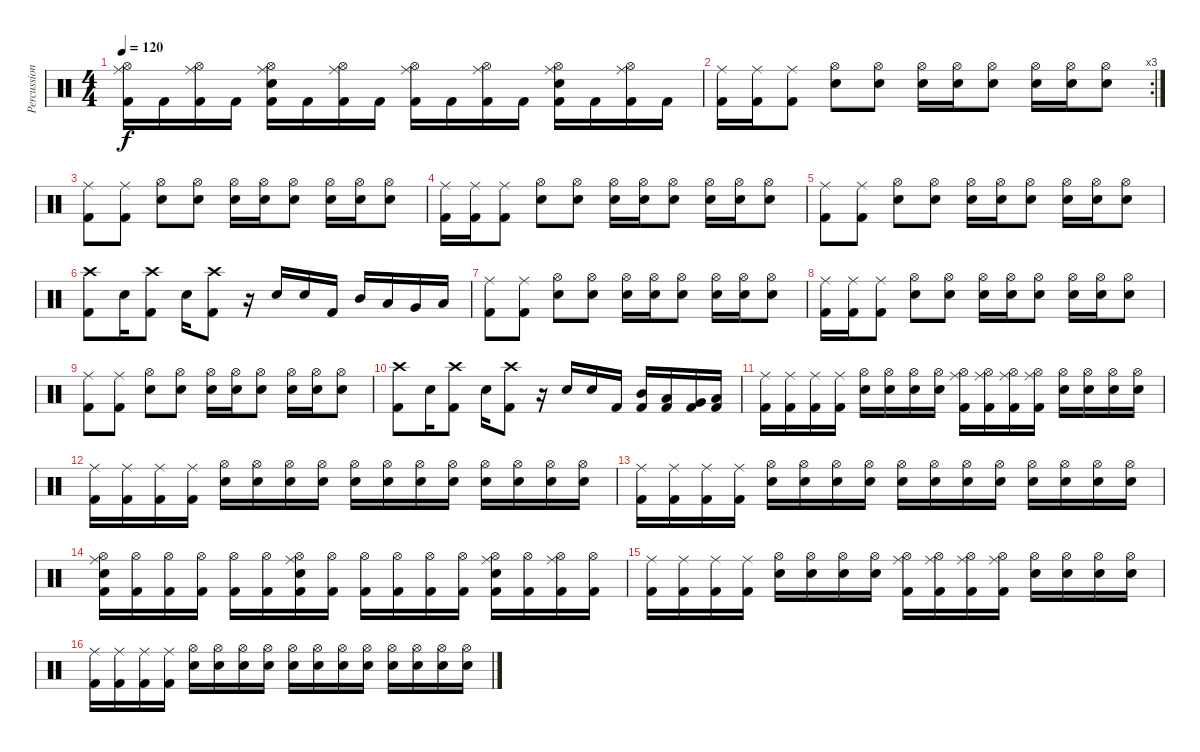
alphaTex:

\track ("Percussions" "Percussion") {instrument percussion}
\staff {score}
\articulation defaults
\ts (4 4)
\tempo 120
\clef neutral
\ks c
("Kick (hit) 2" "Ride (middle)" "Hi-Hat (open)").16{dy f} "Kick (hit) 2".16 ("Kick (hit) 2" "Ride (middle)" "Hi-Hat (open)").16 "Kick (hit) 2".16 ("Kick (hit) 2" "Snare (hit) 2" "Ride (middle)" "Hi-Hat (open)").16 "Kick (hit) 2".16 ("Kick (hit) 2" "Ride (middle)" "Hi-Hat (open)").16 "Kick (hit) 2".16 ("Kick (hit) 2" "Ride (middle)" "Hi-Hat (open)").16 "Kick (hit) 2".16 ("Kick (hit) 2" "Ride (middle)" "Hi-Hat (open)").16 "Kick (hit) 2".16 ("Kick (hit) 2" "Snare (hit) 2" "Ride (middle)" "Hi-Hat (open)").16 "Kick (hit) 2".16 ("Kick (hit) 2" "Ride (middle)" "Hi-Hat (open)").16 "Kick (hit) 2".16 |
\rc 3
("Kick (hit) 2" "Ride (middle)").16 ("Kick (hit) 2" "Ride (middle)").16 ("Kick (hit) 2" "Ride (middle)").8 ("Snare (hit) 2" "Hi-Hat (open)").8 ("Snare (hit) 2" "Hi-Hat (open)").8 ("Snare (hit) 2" "Hi-Hat (open)").16 ("Snare (hit) 2" "Hi-Hat (open)").16 ("Snare (hit) 2" "Hi-Hat (open)").8 ("Snare (hit) 2" "Hi-Hat (open)").16 ("Snare (hit) 2" "Hi-Hat (open)").16 ("Snare (hit) 2" "Hi-Hat (open)").8 |
("Kick (hit) 2" "Ride (middle)").8 ("Kick (hit) 2" "Ride (middle)").8 ("Snare (hit) 2" "Hi-Hat (open)").8 ("Snare (hit) 2" "Hi-Hat (open)").8 ("Snare (hit) 2" "Hi-Hat (open)").16 ("Snare (hit) 2" "Hi-Hat (open)").16 ("Snare (hit) 2" "Hi-Hat (open)").8 ("Snare (hit) 2" "Hi-Hat (open)").16 ("Snare (hit) 2" "Hi-Hat (open)").16 ("Snare (hit) 2" "Hi-Hat (open)").8 |
("Kick (hit) 2" "Ride (middle)").16 ("Kick (hit) 2" "Ride (middle)").16 ("Kick (hit) 2" "Ride (middle)").8 ("Snare (hit) 2" "Hi-Hat (open)").8 ("Snare (hit) 2" "Hi-Hat (open)").8 ("Snare (hit) 2" "Hi-Hat (open)").16 ("Snare (hit) 2" "Hi-Hat (open)").16 ("Snare (hit) 2" "Hi-Hat (open)").8 ("Snare (hit) 2" "Hi-Hat (open)").16 ("Snare (hit) 2" "Hi-Hat (open)").16 ("Snare (hit) 2" "Hi-Hat (open)").8 |
("Kick (hit) 2" "Ride (middle)").8 ("Kick (hit) 2" "Ride (middle)").8 ("Snare (hit) 2" "Hi-Hat (open)").8 ("Snare (hit) 2" "Hi-Hat (open)").8 ("Snare (hit) 2" "Hi-Hat (open)").16 ("Snare (hit) 2" "Hi-Hat (open)").16 ("Snare (hit) 2" "Hi-Hat (open)").8 ("Snare (hit) 2" "Hi-Hat (open)").16 ("Snare (hit) 2" "Hi-Hat (open)").16 ("Snare (hit) 2" "Hi-Hat (open)").8 |
("Kick (hit) 2" "Crash high (hit)").8 "Snare (hit) 2".16 ("Kick (hit) 2" "Crash high (hit)").8 "Snare (hit) 2".16 ("Kick (hit) 2" "Crash high (hit)").8 r.16 "Snare (hit) 2".16 "Snare (hit) 2".16 "Kick (hit) 2".16 "Mid Tom (hit)".16 "Low Tom (hit)".16 "Very Low Tom (hit)".16 "Low Floor Tom (hit)".16 |
("Kick (hit) 2" "Ride (middle)").8 ("Kick (hit) 2" "Ride (middle)").8 ("Snare (hit) 2" "Hi-Hat (open)").8 ("Snare (hit) 2" "Hi-Hat (open)").8 ("Snare (hit) 2" "Hi-Hat (open)").16 ("Snare (hit) 2" "Hi-Hat (open)").16 ("Snare (hit) 2" "Hi-Hat (open)").8 ("Snare (hit) 2" "Hi-Hat (open)").16 ("Snare (hit) 2" "Hi-Hat (open)").16 ("Snare (hit) 2" "Hi-Hat (open)").8 |
("Kick (hit) 2" "Ride (middle)").16 ("Kick (hit) 2" "Ride (middle)").16 ("Kick (hit) 2" "Ride (middle)").8 ("Snare (hit) 2" "Hi-Hat (open)").8 ("Snare (hit) 2" "Hi-Hat (open)").8 ("Snare (hit) 2" "Hi-Hat (open)").16 ("Snare (hit) 2" "Hi-Hat (open)").16 ("Snare (hit) 2" "Hi-Hat (open)").8 ("Snare (hit) 2" "Hi-Hat (open)").16 ("Snare (hit) 2" "Hi-Hat (open)").16 ("Snare (hit) 2" "Hi-Hat (open)").8 |
("Kick (hit) 2" "Ride (middle)").8 ("Kick (hit) 2" "Ride (middle)").8 ("Snare (hit) 2" "Hi-Hat (open)").8 ("Snare (hit) 2" "Hi-Hat (open)").8 ("Snare (hit) 2" "Hi-Hat (open)").16 ("Snare (hit) 2" "Hi-Hat (open)").16 ("Snare (hit) 2" "Hi-Hat (open)").8 ("Snare (hit) 2" "Hi-Hat (open)").16 ("Snare (hit) 2" "Hi-Hat (open)").16 ("Snare (hit) 2" "Hi-Hat (open)").8 |
("Kick (hit) 2" "Crash high (hit)").8 "Snare (hit) 2".16 ("Kick (hit) 2" "Crash high (hit)").8 "Snare (hit) 2".16 ("Kick (hit) 2" "Crash high (hit)").8 r.16 "Snare (hit) 2".16 "Snare (hit) 2".16 "Kick (hit) 2".16 ("Kick (hit) 2" "Mid Tom (hit)").16 ("Kick (hit) 2" "Low Tom (hit)").16 ("Kick (hit) 2" "Very Low Tom (hit)").16 ("Kick (hit) 2" "Low Floor Tom (hit)").16 |
("Kick (hit) 2" "Ride (middle)").16 ("Kick (hit) 2" "Ride (middle)").16 ("Kick (hit) 2" "Ride (middle)").16 ("Kick (hit) 2" "Ride (middle)").16 ("Snare (hit) 2" "Hi-Hat (open)").16 ("Snare (hit) 2" "Hi-Hat (open)").16 ("Snare (hit) 2" "Hi-Hat (open)").16 ("Snare (hit) 2" "Hi-Hat (open)").16 ("Kick (hit) 2" "Ride (middle)" "Hi-Hat (open)").16 ("Kick (hit) 2" "Ride (middle)" "Hi-Hat (open)").16 ("Kick (hit) 2" "Ride (middle)" "Hi-Hat (open)").16 ("Kick (hit) 2" "Ride (middle)" "Hi-Hat (open)").16 ("Snare (hit) 2" "Hi-Hat (open)").16 ("Snare (hit) 2" "Hi-Hat (open)").16 ("Snare (hit) 2" "Hi-Hat (open)").16 ("Snare (hit) 2" "Hi-Hat (open)").16 |
("Kick (hit) 2" "Ride (middle)").16 ("Kick (hit) 2" "Ride (middle)").16 ("Kick (hit) 2" "Ride (middle)").16 ("Kick (hit) 2" "Ride (middle)").16 ("Snare (hit) 2" "Hi-Hat (open)").16 ("Snare (hit) 2" "Hi-Hat (open)").16 ("Snare (hit) 2" "Hi-Hat (open)").16 ("Snare (hit) 2" "Hi-Hat (open)").16 ("Snare (hit) 2" "Hi-Hat (open)").16 ("Snare (hit) 2" "Hi-Hat (open)").16 ("Snare (hit) 2" "Hi-Hat (open)").16 ("Snare (hit) 2" "Hi-Hat (open)").16 ("Snare (hit) 2" "Hi-Hat (open)").16 ("Snare (hit) 2" "Hi-Hat (open)").16 ("Snare (hit) 2" "Hi-Hat (open)").16 ("Snare (hit) 2" "Hi-Hat (open)").16 |
("Kick (hit) 2" "Ride (middle)").16 ("Kick (hit) 2" "Ride (middle)").16 ("Kick (hit) 2" "Ride (middle)").16 ("Kick (hit) 2" "Ride (middle)").16 ("Snare (hit) 2" "Hi-Hat (open)").16 ("Snare (hit) 2" "Hi-Hat (open)").16 ("Snare (hit) 2" "Hi-Hat (open)").16 ("Snare (hit) 2" "Hi-Hat (open)").16 ("Snare (hit) 2" "Hi-Hat (open)").16 ("Snare (hit) 2" "Hi-Hat (open)").16 ("Snare (hit) 2" "Hi-Hat (open)").16 ("Snare (hit) 2" "Hi-Hat (open)").16 ("Snare (hit) 2" "Hi-Hat (open)").16 ("Snare (hit) 2" "Hi-Hat (open)").16 ("Snare (hit) 2" "Hi-Hat (open)").16 ("Snare (hit) 2" "Hi-Hat (open)").16 |
("Kick (hit) 2" "Ride (middle)" "Snare (hit) 2" "Hi-Hat (open)").16 ("Kick (hit) 2" "Hi-Hat (open)").16 ("Kick (hit) 2" "Hi-Hat (open)").16 ("Kick (hit) 2" "Hi-Hat (open)").16 ("Kick (hit) 2" "Hi-Hat (open)").16 ("Kick (hit) 2" "Hi-Hat (open)").16 ("Kick (hit) 2" "Ride (middle)" "Snare (hit) 2" "Hi-Hat (open)").16 ("Kick (hit) 2" "Hi-Hat (open)").16 ("Kick (hit) 2" "Hi-Hat (open)").16 ("Kick (hit) 2" "Hi-Hat (open)").16 ("Kick (hit) 2" "Hi-Hat (open)").16 ("Kick (hit) 2" "Hi-Hat (open)").16 ("Kick (hit) 2" "Snare (hit) 2" "Ride (middle)" "Hi-Hat (open)").16 ("Kick (hit) 2" "Hi-Hat (open)").16 ("Kick (hit) 2" "Ride (middle)" "Hi-Hat (open)").16 ("Kick (hit) 2" "Hi-Hat (open)").16 |
("Kick (hit) 2" "Ride (middle)").16 ("Kick (hit) 2" "Ride (middle)").16 ("Kick (hit) 2" "Ride (middle)").16 ("Kick (hit) 2" "Ride (middle)").16 ("Snare (hit) 2" "Hi-Hat (open)").16 ("Snare (hit) 2" "Hi-Hat (open)").16 ("Snare (hit) 2" "Hi-Hat (open)").16 ("Snare (hit) 2" "Hi-Hat (open)").16 ("Kick (hit) 2" "Ride (middle)" "Hi-Hat (open)").16 ("Kick (hit) 2" "Ride (middle)" "Hi-Hat (open)").16 ("Kick (hit) 2" "Ride (middle)" "Hi-Hat (open)").16 ("Kick (hit) 2" "Ride (middle)" "Hi-Hat (open)").16 ("Snare (hit) 2" "Hi-Hat (open)").16 ("Snare (hit) 2" "Hi-Hat (open)").16 ("Snare (hit) 2" "Hi-Hat (open)").16 ("Snare (hit) 2" "Hi-Hat (open)").16 |
("Kick (hit) 2" "Ride (middle)").16 ("Kick (hit) 2" "Ride (middle)").16 ("Kick (hit) 2" "Ride (middle)").16 ("Kick (hit) 2" "Ride (middle)").16 ("Snare (hit) 2" "Hi-Hat (open)").16 ("Snare (hit) 2" "Hi-Hat (open)").16 ("Snare (hit) 2" "Hi-Hat (open)").16 ("Snare (hit) 2" "Hi-Hat (open)").16 ("Snare (hit) 2" "Hi-Hat (open)").16 ("Snare (hit) 2" "Hi-Hat (open)").16 ("Snare (hit) 2" "Hi-Hat (open)").16 ("Snare (hit) 2" "Hi-Hat (open)").16 ("Snare (hit) 2" "Hi-Hat (open)").16 ("Snare (hit) 2" "Hi-Hat (open)").16 ("Snare (hit) 2" "Hi-Hat (open)").16 ("Snare (hit) 2" "Hi-Hat (open)").16
